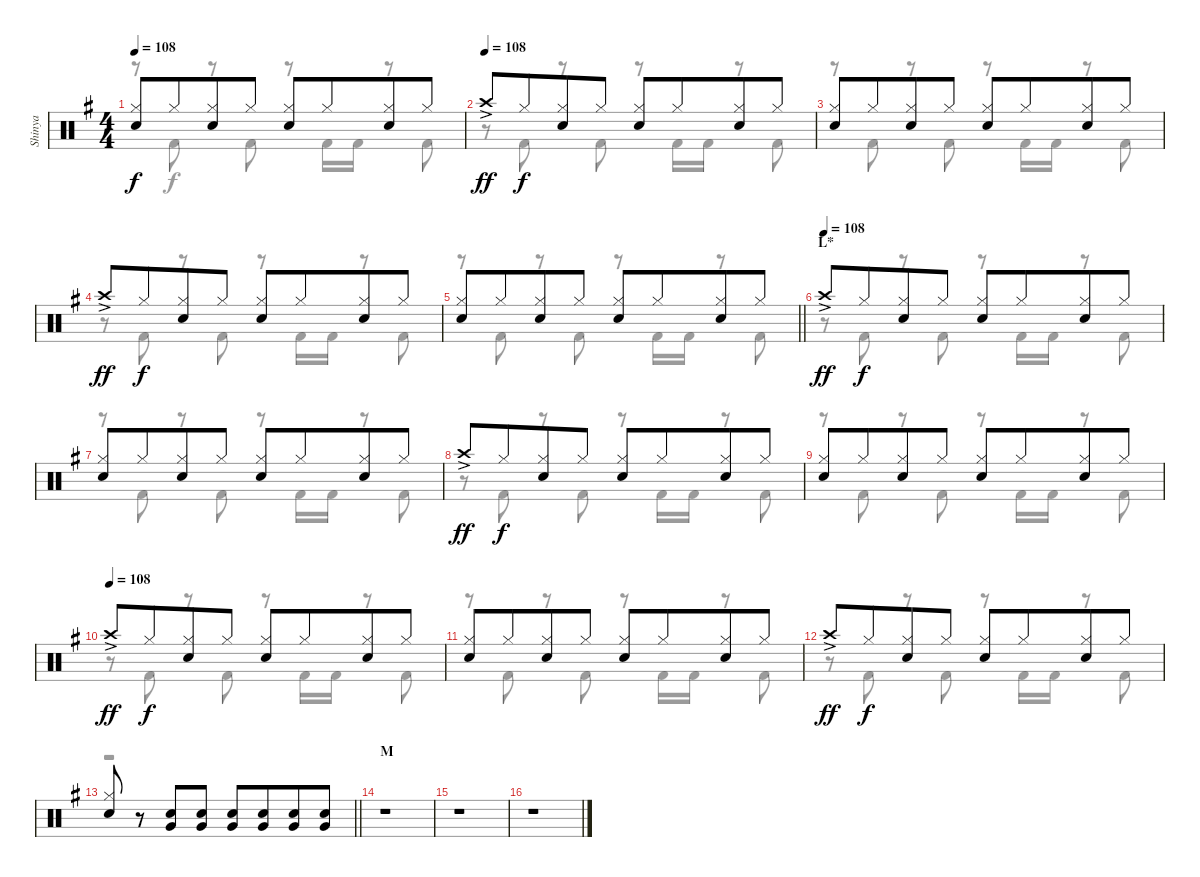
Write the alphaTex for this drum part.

\track ("Shinya" "Shinya") {instrument percussion}
\staff {score}
\articulation defaults
\voice
\ts (4 4)
\tempo 108
\clef neutral
\ks eminor
("Hi-Hat (closed)" "Snare (hit) 2").8{dy f} "Hi-Hat (closed)".8{beam merge} ("Hi-Hat (closed)" "Snare (hit) 2").8 "Hi-Hat (closed)".8 ("Hi-Hat (closed)" "Snare (hit) 2").8 "Hi-Hat (closed)".8{beam merge} ("Hi-Hat (closed)" "Snare (hit) 2").8 "Hi-Hat (closed)".8 |
\tempo (108)
"Crash high (hit)"{ac}.8{dy ff} "Hi-Hat (closed)".8{dy f beam merge} ("Hi-Hat (closed)" "Snare (hit) 2").8 "Hi-Hat (closed)".8 ("Hi-Hat (closed)" "Snare (hit) 2").8 "Hi-Hat (closed)".8{beam merge} ("Hi-Hat (closed)" "Snare (hit) 2").8 "Hi-Hat (closed)".8 |
("Hi-Hat (closed)" "Snare (hit) 2").8 "Hi-Hat (closed)".8{beam merge} ("Hi-Hat (closed)" "Snare (hit) 2").8 "Hi-Hat (closed)".8 ("Hi-Hat (closed)" "Snare (hit) 2").8 "Hi-Hat (closed)".8{beam merge} ("Hi-Hat (closed)" "Snare (hit) 2").8 "Hi-Hat (closed)".8 |
"Crash high (hit)"{ac}.8{dy ff} "Hi-Hat (closed)".8{dy f beam merge} ("Hi-Hat (closed)" "Snare (hit) 2").8 "Hi-Hat (closed)".8 ("Hi-Hat (closed)" "Snare (hit) 2").8 "Hi-Hat (closed)".8{beam merge} ("Hi-Hat (closed)" "Snare (hit) 2").8 "Hi-Hat (closed)".8 |
\barLineRight lightlight
("Hi-Hat (closed)" "Snare (hit) 2").8 "Hi-Hat (closed)".8{beam merge} ("Hi-Hat (closed)" "Snare (hit) 2").8 "Hi-Hat (closed)".8 ("Hi-Hat (closed)" "Snare (hit) 2").8 "Hi-Hat (closed)".8{beam merge} ("Hi-Hat (closed)" "Snare (hit) 2").8 "Hi-Hat (closed)".8 |
\section ("" "L*")
\tempo (108)
"Crash high (hit)"{ac}.8{dy ff} "Hi-Hat (closed)".8{dy f beam merge} ("Hi-Hat (closed)" "Snare (hit) 2").8 "Hi-Hat (closed)".8 ("Hi-Hat (closed)" "Snare (hit) 2").8 "Hi-Hat (closed)".8{beam merge} ("Hi-Hat (closed)" "Snare (hit) 2").8 "Hi-Hat (closed)".8 |
("Hi-Hat (closed)" "Snare (hit) 2").8 "Hi-Hat (closed)".8{beam merge} ("Hi-Hat (closed)" "Snare (hit) 2").8 "Hi-Hat (closed)".8 ("Hi-Hat (closed)" "Snare (hit) 2").8 "Hi-Hat (closed)".8{beam merge} ("Hi-Hat (closed)" "Snare (hit) 2").8 "Hi-Hat (closed)".8 |
"Crash high (hit)"{ac}.8{dy ff} "Hi-Hat (closed)".8{dy f beam merge} ("Hi-Hat (closed)" "Snare (hit) 2").8 "Hi-Hat (closed)".8 ("Hi-Hat (closed)" "Snare (hit) 2").8 "Hi-Hat (closed)".8{beam merge} ("Hi-Hat (closed)" "Snare (hit) 2").8 "Hi-Hat (closed)".8 |
("Hi-Hat (closed)" "Snare (hit) 2").8 "Hi-Hat (closed)".8{beam merge} ("Hi-Hat (closed)" "Snare (hit) 2").8 "Hi-Hat (closed)".8 ("Hi-Hat (closed)" "Snare (hit) 2").8 "Hi-Hat (closed)".8{beam merge} ("Hi-Hat (closed)" "Snare (hit) 2").8 "Hi-Hat (closed)".8 |
\tempo (108)
"Crash high (hit)"{ac}.8{dy ff} "Hi-Hat (closed)".8{dy f beam merge} ("Hi-Hat (closed)" "Snare (hit) 2").8 "Hi-Hat (closed)".8 ("Hi-Hat (closed)" "Snare (hit) 2").8 "Hi-Hat (closed)".8{beam merge} ("Hi-Hat (closed)" "Snare (hit) 2").8 "Hi-Hat (closed)".8 |
("Hi-Hat (closed)" "Snare (hit) 2").8 "Hi-Hat (closed)".8{beam merge} ("Hi-Hat (closed)" "Snare (hit) 2").8 "Hi-Hat (closed)".8 ("Hi-Hat (closed)" "Snare (hit) 2").8 "Hi-Hat (closed)".8{beam merge} ("Hi-Hat (closed)" "Snare (hit) 2").8 "Hi-Hat (closed)".8 |
"Crash high (hit)"{ac}.8{dy ff} "Hi-Hat (closed)".8{dy f beam merge} ("Hi-Hat (closed)" "Snare (hit) 2").8 "Hi-Hat (closed)".8 ("Hi-Hat (closed)" "Snare (hit) 2").8 "Hi-Hat (closed)".8{beam merge} ("Hi-Hat (closed)" "Snare (hit) 2").8 "Hi-Hat (closed)".8 |
\barLineRight lightlight
("Hi-Hat (closed)" "Snare (hit) 2").8 r.8 ("Snare (hit) 2" "Very Low Tom (hit)").8 ("Snare (hit) 2" "Very Low Tom (hit)").8 ("Snare (hit) 2" "Very Low Tom (hit)").8 ("Snare (hit) 2" "Very Low Tom (hit)").8{beam merge} ("Snare (hit) 2" "Very Low Tom (hit)").8 ("Snare (hit) 2" "Very Low Tom (hit)").8 |
\section ("" "M")
r.1 |
r.1 |
r.1
\voice
\clef neutral
\ottava regular
\simile none
\ks eminor
r.8{dy f} "Kick (hit) 2".8 r.8 "Kick (hit) 2".8 r.8 "Kick (hit) 2".16 "Kick (hit) 2".16 r.8 "Kick (hit) 2".8 |
r.8 "Kick (hit) 2".8 r.8 "Kick (hit) 2".8 r.8 "Kick (hit) 2".16 "Kick (hit) 2".16 r.8 "Kick (hit) 2".8 |
r.8 "Kick (hit) 2".8 r.8 "Kick (hit) 2".8 r.8 "Kick (hit) 2".16 "Kick (hit) 2".16 r.8 "Kick (hit) 2".8 |
r.8 "Kick (hit) 2".8 r.8 "Kick (hit) 2".8 r.8 "Kick (hit) 2".16 "Kick (hit) 2".16 r.8 "Kick (hit) 2".8 |
\barLineRight lightlight
r.8 "Kick (hit) 2".8 r.8 "Kick (hit) 2".8 r.8 "Kick (hit) 2".16 "Kick (hit) 2".16 r.8 "Kick (hit) 2".8 |
r.8 "Kick (hit) 2".8 r.8 "Kick (hit) 2".8 r.8 "Kick (hit) 2".16 "Kick (hit) 2".16 r.8 "Kick (hit) 2".8 |
r.8 "Kick (hit) 2".8 r.8 "Kick (hit) 2".8 r.8 "Kick (hit) 2".16 "Kick (hit) 2".16 r.8 "Kick (hit) 2".8 |
r.8 "Kick (hit) 2".8 r.8 "Kick (hit) 2".8 r.8 "Kick (hit) 2".16 "Kick (hit) 2".16 r.8 "Kick (hit) 2".8 |
r.8 "Kick (hit) 2".8 r.8 "Kick (hit) 2".8 r.8 "Kick (hit) 2".16 "Kick (hit) 2".16 r.8 "Kick (hit) 2".8 |
r.8 "Kick (hit) 2".8 r.8 "Kick (hit) 2".8 r.8 "Kick (hit) 2".16 "Kick (hit) 2".16 r.8 "Kick (hit) 2".8 |
r.8 "Kick (hit) 2".8 r.8 "Kick (hit) 2".8 r.8 "Kick (hit) 2".16 "Kick (hit) 2".16 r.8 "Kick (hit) 2".8 |
r.8 "Kick (hit) 2".8 r.8 "Kick (hit) 2".8 r.8 "Kick (hit) 2".16 "Kick (hit) 2".16 r.8 "Kick (hit) 2".8 |
\barLineRight lightlight
r.1 |
r.1 |
r.1 |
r.1
